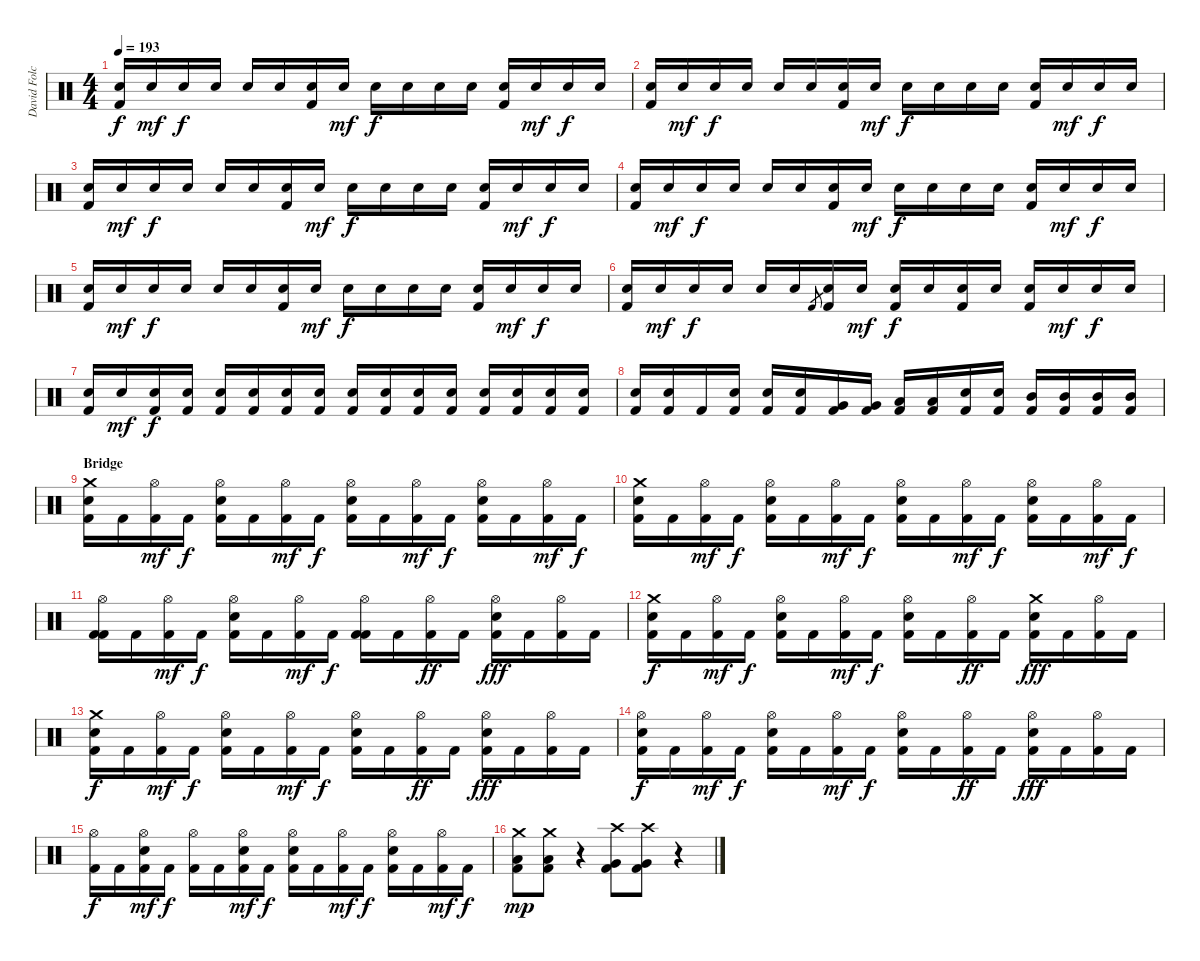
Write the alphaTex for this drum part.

\track ("David Folchitto" "David Folc") {instrument percussion}
\staff {score}
\articulation defaults
\ts (4 4)
\tempo 193
\clef neutral
\ks c
("Snare (hit) 2" "Kick (hit) 2").16{dy f} "Snare (hit) 2".16{dy mf} "Snare (hit) 2".16{dy f} "Snare (hit) 2".16 "Snare (hit) 2".16 "Snare (hit) 2".16 ("Snare (hit) 2" "Kick (hit) 2").16 "Snare (hit) 2".16{dy mf} "Snare (hit) 2".16{dy f} "Snare (hit) 2".16 "Snare (hit) 2".16 "Snare (hit) 2".16 ("Snare (hit) 2" "Kick (hit) 2").16 "Snare (hit) 2".16{dy mf} "Snare (hit) 2".16{dy f} "Snare (hit) 2".16 |
("Snare (hit) 2" "Kick (hit) 2").16 "Snare (hit) 2".16{dy mf} "Snare (hit) 2".16{dy f} "Snare (hit) 2".16 "Snare (hit) 2".16 "Snare (hit) 2".16 ("Snare (hit) 2" "Kick (hit) 2").16 "Snare (hit) 2".16{dy mf} "Snare (hit) 2".16{dy f} "Snare (hit) 2".16 "Snare (hit) 2".16 "Snare (hit) 2".16 ("Snare (hit) 2" "Kick (hit) 2").16 "Snare (hit) 2".16{dy mf} "Snare (hit) 2".16{dy f} "Snare (hit) 2".16 |
("Snare (hit) 2" "Kick (hit) 2").16 "Snare (hit) 2".16{dy mf} "Snare (hit) 2".16{dy f} "Snare (hit) 2".16 "Snare (hit) 2".16 "Snare (hit) 2".16 ("Snare (hit) 2" "Kick (hit) 2").16 "Snare (hit) 2".16{dy mf} "Snare (hit) 2".16{dy f} "Snare (hit) 2".16 "Snare (hit) 2".16 "Snare (hit) 2".16 ("Snare (hit) 2" "Kick (hit) 2").16 "Snare (hit) 2".16{dy mf} "Snare (hit) 2".16{dy f} "Snare (hit) 2".16 |
("Snare (hit) 2" "Kick (hit) 2").16 "Snare (hit) 2".16{dy mf} "Snare (hit) 2".16{dy f} "Snare (hit) 2".16 "Snare (hit) 2".16 "Snare (hit) 2".16 ("Snare (hit) 2" "Kick (hit) 2").16 "Snare (hit) 2".16{dy mf} "Snare (hit) 2".16{dy f} "Snare (hit) 2".16 "Snare (hit) 2".16 "Snare (hit) 2".16 ("Snare (hit) 2" "Kick (hit) 2").16 "Snare (hit) 2".16{dy mf} "Snare (hit) 2".16{dy f} "Snare (hit) 2".16 |
("Snare (hit) 2" "Kick (hit) 2").16 "Snare (hit) 2".16{dy mf} "Snare (hit) 2".16{dy f} "Snare (hit) 2".16 "Snare (hit) 2".16 "Snare (hit) 2".16 ("Snare (hit) 2" "Kick (hit) 2").16 "Snare (hit) 2".16{dy mf} "Snare (hit) 2".16{dy f} "Snare (hit) 2".16 "Snare (hit) 2".16 "Snare (hit) 2".16 ("Snare (hit) 2" "Kick (hit) 2").16 "Snare (hit) 2".16{dy mf} "Snare (hit) 2".16{dy f} "Snare (hit) 2".16 |
("Snare (hit) 2" "Kick (hit) 2").16 "Snare (hit) 2".16{dy mf} "Snare (hit) 2".16{dy f} "Snare (hit) 2".16 "Snare (hit) 2".16 "Snare (hit) 2".16 "Kick (hit) 2".8{gr} ("Snare (hit) 2" "Kick (hit) 2").16 "Snare (hit) 2".16{dy mf} ("Snare (hit) 2" "Kick (hit) 2").16{dy f} "Snare (hit) 2".16 ("Snare (hit) 2" "Kick (hit) 2").16 "Snare (hit) 2".16 ("Snare (hit) 2" "Kick (hit) 2").16 "Snare (hit) 2".16{dy mf} "Snare (hit) 2".16{dy f} "Snare (hit) 2".16 |
("Snare (hit) 2" "Kick (hit) 2").16 "Snare (hit) 2".16{dy mf} ("Snare (hit) 2" "Kick (hit) 2").16{dy f} ("Snare (hit) 2" "Kick (hit) 2").16 ("Snare (hit) 2" "Kick (hit) 2").16 ("Snare (hit) 2" "Kick (hit) 2").16 ("Snare (hit) 2" "Kick (hit) 2").16 ("Snare (hit) 2" "Kick (hit) 2").16 ("Snare (hit) 2" "Kick (hit) 2").16 ("Snare (hit) 2" "Kick (hit) 2").16 ("Snare (hit) 2" "Kick (hit) 2").16 ("Snare (hit) 2" "Kick (hit) 2").16 ("Snare (hit) 2" "Kick (hit) 2").16 ("Snare (hit) 2" "Kick (hit) 2").16 ("Snare (hit) 2" "Kick (hit) 2").16 ("Snare (hit) 2" "Kick (hit) 2").16 |
("Snare (hit) 2" "Kick (hit) 2").16 ("Snare (hit) 2" "Kick (hit) 2").16 "Kick (hit) 2".16 ("Snare (hit) 2" "Kick (hit) 2").16 ("Snare (hit) 2" "Kick (hit) 2").16 ("Snare (hit) 2" "Kick (hit) 2").16 ("Very Low Tom (hit)" "Kick (hit) 2").16 ("Very Low Tom (hit)" "Kick (hit) 2").16 ("Low Tom (hit)" "Kick (hit) 2").16 ("Low Tom (hit)" "Kick (hit) 2").16 ("Snare (hit) 2" "Kick (hit) 2").16 ("Snare (hit) 2" "Kick (hit) 2").16 ("Mid Tom (hit)" "Kick (hit) 2").16 ("Mid Tom (hit)" "Kick (hit) 2").16 ("Mid Tom (hit)" "Kick (hit) 2").16 ("Mid Tom (hit)" "Kick (hit) 2").16 |
\section ("" "Bridge")
("Crash medium (hit)" "Snare (hit) 2" "Kick (hit) 2").16 "Kick (hit) 2".16 ("Hi-Hat (open)" "Kick (hit) 2").16{dy mf} "Kick (hit) 2".16{dy f} ("Hi-Hat (open)" "Snare (hit) 2" "Kick (hit) 2").16 "Kick (hit) 2".16 ("Hi-Hat (open)" "Kick (hit) 2").16{dy mf} "Kick (hit) 2".16{dy f} ("Hi-Hat (open)" "Snare (hit) 2" "Kick (hit) 2").16 "Kick (hit) 2".16 ("Hi-Hat (open)" "Kick (hit) 2").16{dy mf} "Kick (hit) 2".16{dy f} ("Hi-Hat (open)" "Snare (hit) 2" "Kick (hit) 2").16 "Kick (hit) 2".16 ("Hi-Hat (open)" "Kick (hit) 2").16{dy mf} "Kick (hit) 2".16{dy f} |
("Crash medium (hit)" "Snare (hit) 2" "Kick (hit) 2").16 "Kick (hit) 2".16 ("Hi-Hat (open)" "Kick (hit) 2").16{dy mf} "Kick (hit) 2".16{dy f} ("Hi-Hat (open)" "Snare (hit) 2" "Kick (hit) 2").16 "Kick (hit) 2".16 ("Hi-Hat (open)" "Kick (hit) 2").16{dy mf} "Kick (hit) 2".16{dy f} ("Hi-Hat (open)" "Snare (hit) 2" "Kick (hit) 2").16 "Kick (hit) 2".16 ("Hi-Hat (open)" "Kick (hit) 2").16{dy mf} "Kick (hit) 2".16{dy f} ("Hi-Hat (open)" "Snare (hit) 2" "Kick (hit) 2").16 "Kick (hit) 2".16 ("Hi-Hat (open)" "Kick (hit) 2").16{dy mf} "Kick (hit) 2".16{dy f} |
("Hi-Hat (open)" "Kick (hit) 2" "Kick (hit) 2").16 "Kick (hit) 2".16 ("Hi-Hat (open)" "Kick (hit) 2").16{dy mf} "Kick (hit) 2".16{dy f} ("Hi-Hat (open)" "Snare (hit) 2" "Kick (hit) 2").16 "Kick (hit) 2".16 ("Hi-Hat (open)" "Kick (hit) 2").16{dy mf} "Kick (hit) 2".16{dy f} ("Hi-Hat (open)" "Kick (hit) 2" "Kick (hit) 2").16 "Kick (hit) 2".16 ("Hi-Hat (open)" "Kick (hit) 2").16{dy ff} "Kick (hit) 2".16 ("Hi-Hat (open)" "Snare (hit) 2" "Kick (hit) 2").16{dy fff} "Kick (hit) 2".16 ("Hi-Hat (open)" "Kick (hit) 2").16 "Kick (hit) 2".16 |
("Crash medium (hit)" "Snare (hit) 2" "Kick (hit) 2").16{dy f} "Kick (hit) 2".16 ("Hi-Hat (open)" "Kick (hit) 2").16{dy mf} "Kick (hit) 2".16{dy f} ("Hi-Hat (open)" "Snare (hit) 2" "Kick (hit) 2").16 "Kick (hit) 2".16 ("Hi-Hat (open)" "Kick (hit) 2").16{dy mf} "Kick (hit) 2".16{dy f} ("Hi-Hat (open)" "Snare (hit) 2" "Kick (hit) 2").16 "Kick (hit) 2".16 ("Hi-Hat (open)" "Kick (hit) 2").16{dy ff} "Kick (hit) 2".16 ("Crash medium (hit)" "Snare (hit) 2" "Kick (hit) 2").16{dy fff} "Kick (hit) 2".16 ("Hi-Hat (open)" "Kick (hit) 2").16 "Kick (hit) 2".16 |
("Crash medium (hit)" "Snare (hit) 2" "Kick (hit) 2").16{dy f} "Kick (hit) 2".16 ("Hi-Hat (open)" "Kick (hit) 2").16{dy mf} "Kick (hit) 2".16{dy f} ("Hi-Hat (open)" "Snare (hit) 2" "Kick (hit) 2").16 "Kick (hit) 2".16 ("Hi-Hat (open)" "Kick (hit) 2").16{dy mf} "Kick (hit) 2".16{dy f} ("Hi-Hat (open)" "Snare (hit) 2" "Kick (hit) 2").16 "Kick (hit) 2".16 ("Hi-Hat (open)" "Kick (hit) 2").16{dy ff} "Kick (hit) 2".16 ("Hi-Hat (open)" "Snare (hit) 2" "Kick (hit) 2").16{dy fff} "Kick (hit) 2".16 ("Hi-Hat (open)" "Kick (hit) 2").16 "Kick (hit) 2".16 |
("Hi-Hat (open)" "Snare (hit) 2" "Kick (hit) 2").16{dy f} "Kick (hit) 2".16 ("Hi-Hat (open)" "Kick (hit) 2").16{dy mf} "Kick (hit) 2".16{dy f} ("Hi-Hat (open)" "Snare (hit) 2" "Kick (hit) 2").16 "Kick (hit) 2".16 ("Hi-Hat (open)" "Kick (hit) 2").16{dy mf} "Kick (hit) 2".16{dy f} ("Hi-Hat (open)" "Snare (hit) 2" "Kick (hit) 2").16 "Kick (hit) 2".16 ("Hi-Hat (open)" "Kick (hit) 2").16{dy ff} "Kick (hit) 2".16 ("Hi-Hat (open)" "Snare (hit) 2" "Kick (hit) 2").16{dy fff} "Kick (hit) 2".16 ("Hi-Hat (open)" "Kick (hit) 2").16 "Kick (hit) 2".16 |
("Hi-Hat (open)" "Kick (hit) 2").16{dy f} "Kick (hit) 2".16 ("Hi-Hat (open)" "Snare (hit) 2" "Kick (hit) 2").16{dy mf} "Kick (hit) 2".16{dy f} ("Hi-Hat (open)" "Kick (hit) 2").16 "Kick (hit) 2".16 ("Hi-Hat (open)" "Snare (hit) 2" "Kick (hit) 2").16{dy mf} "Kick (hit) 2".16{dy f} ("Hi-Hat (open)" "Snare (hit) 2" "Kick (hit) 2").16 "Kick (hit) 2".16 ("Hi-Hat (open)" "Kick (hit) 2").16{dy mf} "Kick (hit) 2".16{dy f} ("Hi-Hat (open)" "Snare (hit) 2" "Kick (hit) 2").16 "Kick (hit) 2".16 ("Hi-Hat (open)" "Kick (hit) 2").16{dy mf} "Kick (hit) 2".16{dy f} |
("Crash medium (hit)" "Low Tom (hit)" "Kick (hit) 2").8{dy mp} ("Crash medium (hit)" "Low Tom (hit)" "Kick (hit) 2").8 r.4 ("Crash high (hit)" "Very Low Tom (hit)" "Kick (hit) 2").8 ("Crash high (hit)" "Very Low Tom (hit)" "Kick (hit) 2").8 r.4
